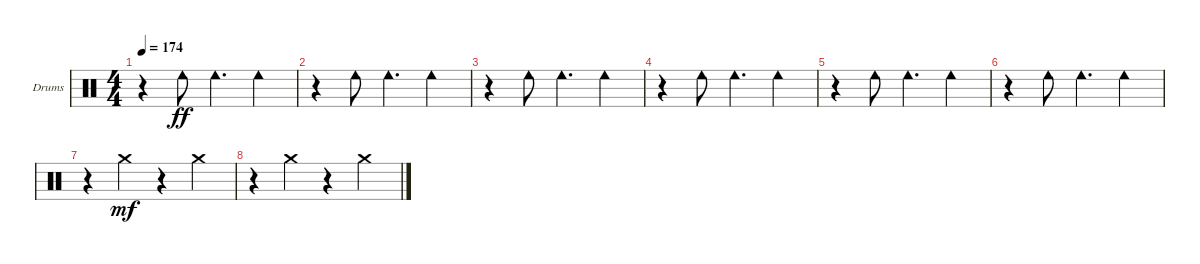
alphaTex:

\defaultSystemsLayout 4
\bracketExtendMode groupsimilarinstruments
\firstSystemTrackNameOrientation horizontal
\otherSystemsTrackNameOrientation horizontal
\track ("Drumkit (EJ Barnes)" "Drums") {instrument percussion}
\staff {score}
\articulation defaults
\ts (4 4)
\tempo 174
\clef neutral
\scale
0.333333
\ks c
r.4{dy mf} "Cowbell low (hit)".8{dy ff} "Cowbell low (hit)".4{d} "Cowbell low (hit)".4 |
\scale
0.333333 r.4 "Cowbell low (hit)".8 "Cowbell low (hit)".4{d} "Cowbell low (hit)".4 |
\scale
0.333333 r.4 "Cowbell low (hit)".8 "Cowbell low (hit)".4{d} "Cowbell low (hit)".4 |
\scale
0.333333 r.4 "Cowbell low (hit)".8 "Cowbell low (hit)".4{d} "Cowbell low (hit)".4 |
\scale
0.333333 r.4 "Cowbell low (hit)".8 "Cowbell low (hit)".4{d} "Cowbell low (hit)".4 |
\scale
0.333333 r.4 "Cowbell low (hit)".8 "Cowbell low (hit)".4{d} "Cowbell low (hit)".4 |
\scale
0.333333 r.4 "Crash medium (hit)".4{dy mf} r.4 "Crash medium (hit)".4 |
\scale
0.333333 r.4 "Crash medium (hit)".4 r.4 "Crash medium (hit)".4 |
\scale
0.333333 |
\scale
0.333333 |
\scale
0.333333 |
\scale
0.333333 |
\scale
0.333333 |
\scale
0.333333 |
\scale
0.333333 |
\scale
0.333333
